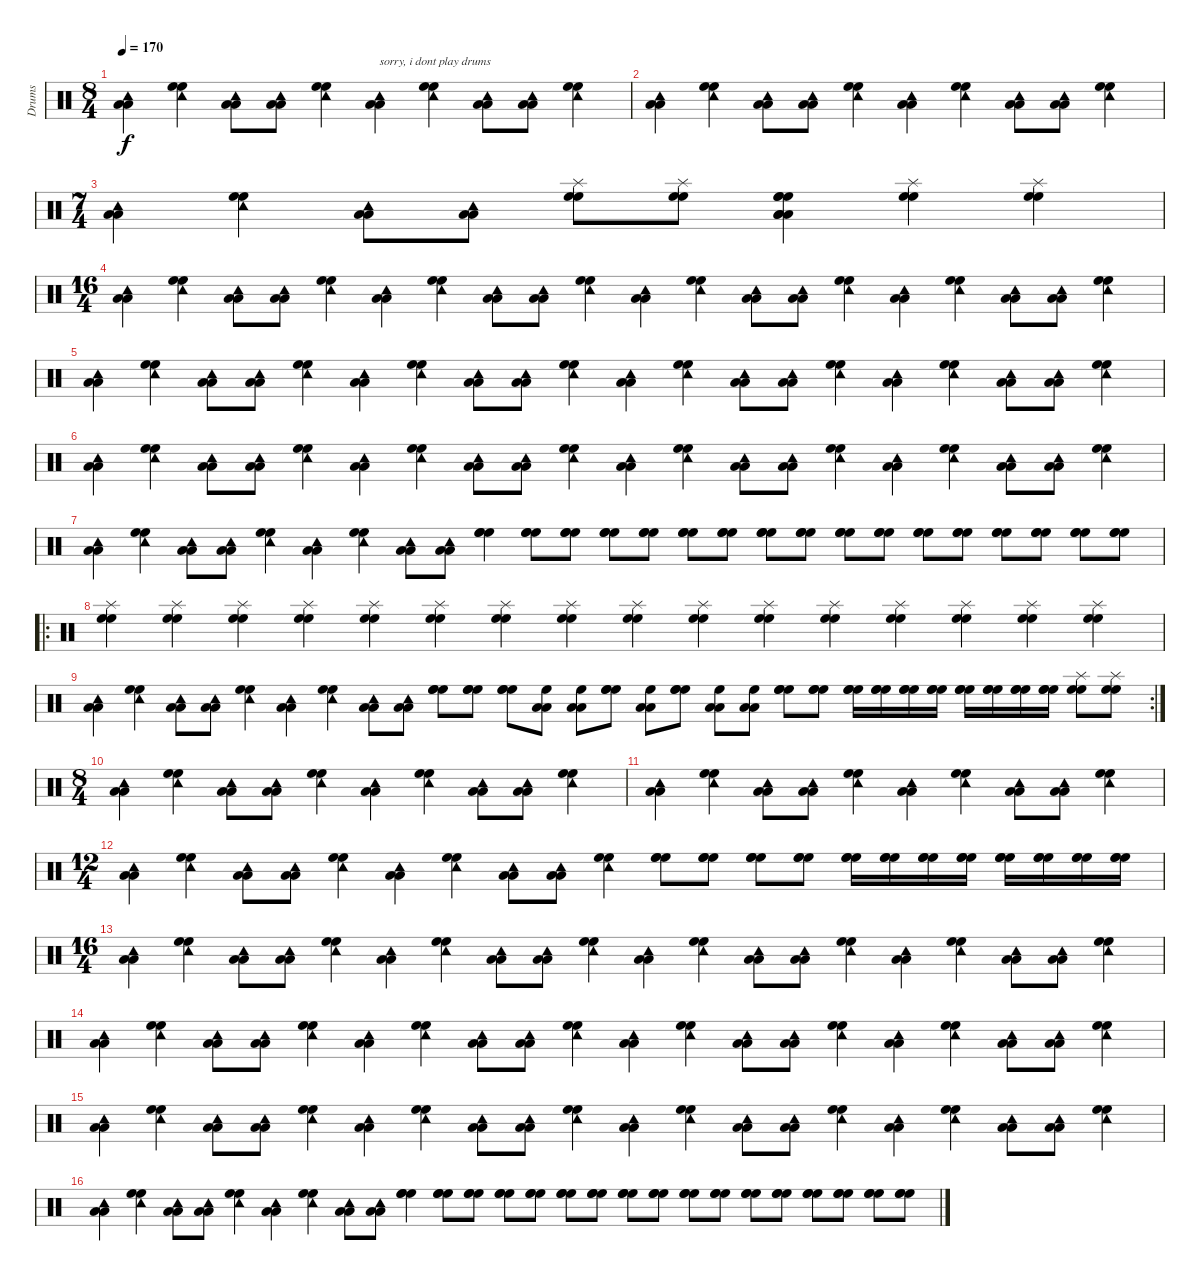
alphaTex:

\track ("Drums" "Drums") {instrument percussion}
\staff {score}
\articulation defaults
\ts (8 4)
\tempo 170
\clef neutral
\ks c
("Low Tom (hit)" "Low Tom (hit)" "Tambourine (hit)").4{dy f} ("High Floor Tom (hit)" "High Floor Tom (hit)" "Tambourine (hit)").4 ("Low Tom (hit)" "Low Tom (hit)" "Tambourine (hit)").8 ("Low Tom (hit)" "Low Tom (hit)" "Tambourine (hit)").8 ("High Floor Tom (hit)" "High Floor Tom (hit)" "Tambourine (hit)").4 ("Low Tom (hit)" "Low Tom (hit)" "Tambourine (hit)").4{txt "sorry, i dont play drums"} ("High Floor Tom (hit)" "High Floor Tom (hit)" "Tambourine (hit)").4 ("Low Tom (hit)" "Low Tom (hit)" "Tambourine (hit)").8 ("Low Tom (hit)" "Low Tom (hit)" "Tambourine (hit)").8 ("High Floor Tom (hit)" "High Floor Tom (hit)" "Tambourine (hit)").4 |
("Low Tom (hit)" "Low Tom (hit)" "Tambourine (hit)").4 ("High Floor Tom (hit)" "High Floor Tom (hit)" "Tambourine (hit)").4 ("Low Tom (hit)" "Low Tom (hit)" "Tambourine (hit)").8 ("Low Tom (hit)" "Low Tom (hit)" "Tambourine (hit)").8 ("High Floor Tom (hit)" "High Floor Tom (hit)" "Tambourine (hit)").4 ("Low Tom (hit)" "Low Tom (hit)" "Tambourine (hit)").4 ("High Floor Tom (hit)" "High Floor Tom (hit)" "Tambourine (hit)").4 ("Low Tom (hit)" "Low Tom (hit)" "Tambourine (hit)").8 ("Low Tom (hit)" "Low Tom (hit)" "Tambourine (hit)").8 ("High Floor Tom (hit)" "High Floor Tom (hit)" "Tambourine (hit)").4 |
\ts (7 4)
("Low Tom (hit)" "Low Tom (hit)" "Tambourine (hit)").4 ("High Floor Tom (hit)" "High Floor Tom (hit)" "Tambourine (hit)").4 ("Low Tom (hit)" "Low Tom (hit)" "Tambourine (hit)").8 ("Low Tom (hit)" "Low Tom (hit)" "Tambourine (hit)").8 ("High Floor Tom (hit)" "High Floor Tom (hit)" "Splash (hit)").8 ("High Floor Tom (hit)" "High Floor Tom (hit)" "Splash (hit)").8 ("Low Tom (hit)" "Low Tom (hit)" "Low Tom (hit)" "High Floor Tom (hit)" "High Floor Tom (hit)" "High Floor Tom (hit)").4 ("High Floor Tom (hit)" "High Floor Tom (hit)" "Splash (hit)").4 ("High Floor Tom (hit)" "High Floor Tom (hit)" "Splash (hit)").4 |
\ts (16 4)
("Low Tom (hit)" "Low Tom (hit)" "Tambourine (hit)").4 ("High Floor Tom (hit)" "High Floor Tom (hit)" "Tambourine (hit)").4 ("Low Tom (hit)" "Low Tom (hit)" "Tambourine (hit)").8 ("Low Tom (hit)" "Low Tom (hit)" "Tambourine (hit)").8 ("High Floor Tom (hit)" "High Floor Tom (hit)" "Tambourine (hit)").4 ("Low Tom (hit)" "Low Tom (hit)" "Tambourine (hit)").4 ("High Floor Tom (hit)" "High Floor Tom (hit)" "Tambourine (hit)").4 ("Low Tom (hit)" "Low Tom (hit)" "Tambourine (hit)").8 ("Low Tom (hit)" "Low Tom (hit)" "Tambourine (hit)").8 ("High Floor Tom (hit)" "High Floor Tom (hit)" "Tambourine (hit)").4 ("Low Tom (hit)" "Low Tom (hit)" "Tambourine (hit)").4 ("High Floor Tom (hit)" "High Floor Tom (hit)" "Tambourine (hit)").4 ("Low Tom (hit)" "Low Tom (hit)" "Tambourine (hit)").8 ("Low Tom (hit)" "Low Tom (hit)" "Tambourine (hit)").8 ("High Floor Tom (hit)" "High Floor Tom (hit)" "Tambourine (hit)").4 ("Low Tom (hit)" "Low Tom (hit)" "Tambourine (hit)").4 ("High Floor Tom (hit)" "High Floor Tom (hit)" "Tambourine (hit)").4 ("Low Tom (hit)" "Low Tom (hit)" "Tambourine (hit)").8 ("Low Tom (hit)" "Low Tom (hit)" "Tambourine (hit)").8 ("High Floor Tom (hit)" "High Floor Tom (hit)" "Tambourine (hit)").4 |
("Low Tom (hit)" "Low Tom (hit)" "Tambourine (hit)").4 ("High Floor Tom (hit)" "High Floor Tom (hit)" "Tambourine (hit)").4 ("Low Tom (hit)" "Low Tom (hit)" "Tambourine (hit)").8 ("Low Tom (hit)" "Low Tom (hit)" "Tambourine (hit)").8 ("High Floor Tom (hit)" "High Floor Tom (hit)" "Tambourine (hit)").4 ("Low Tom (hit)" "Low Tom (hit)" "Tambourine (hit)").4 ("High Floor Tom (hit)" "High Floor Tom (hit)" "Tambourine (hit)").4 ("Low Tom (hit)" "Low Tom (hit)" "Tambourine (hit)").8 ("Low Tom (hit)" "Low Tom (hit)" "Tambourine (hit)").8 ("High Floor Tom (hit)" "High Floor Tom (hit)" "Tambourine (hit)").4 ("Low Tom (hit)" "Low Tom (hit)" "Tambourine (hit)").4 ("High Floor Tom (hit)" "High Floor Tom (hit)" "Tambourine (hit)").4 ("Low Tom (hit)" "Low Tom (hit)" "Tambourine (hit)").8 ("Low Tom (hit)" "Low Tom (hit)" "Tambourine (hit)").8 ("High Floor Tom (hit)" "High Floor Tom (hit)" "Tambourine (hit)").4 ("Low Tom (hit)" "Low Tom (hit)" "Tambourine (hit)").4 ("High Floor Tom (hit)" "High Floor Tom (hit)" "Tambourine (hit)").4 ("Low Tom (hit)" "Low Tom (hit)" "Tambourine (hit)").8 ("Low Tom (hit)" "Low Tom (hit)" "Tambourine (hit)").8 ("High Floor Tom (hit)" "High Floor Tom (hit)" "Tambourine (hit)").4 |
("Low Tom (hit)" "Low Tom (hit)" "Tambourine (hit)").4 ("High Floor Tom (hit)" "High Floor Tom (hit)" "Tambourine (hit)").4 ("Low Tom (hit)" "Low Tom (hit)" "Tambourine (hit)").8 ("Low Tom (hit)" "Low Tom (hit)" "Tambourine (hit)").8 ("High Floor Tom (hit)" "High Floor Tom (hit)" "Tambourine (hit)").4 ("Low Tom (hit)" "Low Tom (hit)" "Tambourine (hit)").4 ("High Floor Tom (hit)" "High Floor Tom (hit)" "Tambourine (hit)").4 ("Low Tom (hit)" "Low Tom (hit)" "Tambourine (hit)").8 ("Low Tom (hit)" "Low Tom (hit)" "Tambourine (hit)").8 ("High Floor Tom (hit)" "High Floor Tom (hit)" "Tambourine (hit)").4 ("Low Tom (hit)" "Low Tom (hit)" "Tambourine (hit)").4 ("High Floor Tom (hit)" "High Floor Tom (hit)" "Tambourine (hit)").4 ("Low Tom (hit)" "Low Tom (hit)" "Tambourine (hit)").8 ("Low Tom (hit)" "Low Tom (hit)" "Tambourine (hit)").8 ("High Floor Tom (hit)" "High Floor Tom (hit)" "Tambourine (hit)").4 ("Low Tom (hit)" "Low Tom (hit)" "Tambourine (hit)").4 ("High Floor Tom (hit)" "High Floor Tom (hit)" "Tambourine (hit)").4 ("Low Tom (hit)" "Low Tom (hit)" "Tambourine (hit)").8 ("Low Tom (hit)" "Low Tom (hit)" "Tambourine (hit)").8 ("High Floor Tom (hit)" "High Floor Tom (hit)" "Tambourine (hit)").4 |
("Low Tom (hit)" "Low Tom (hit)" "Tambourine (hit)").4 ("High Floor Tom (hit)" "High Floor Tom (hit)" "Tambourine (hit)").4 ("Low Tom (hit)" "Low Tom (hit)" "Tambourine (hit)").8 ("Low Tom (hit)" "Low Tom (hit)" "Tambourine (hit)").8 ("High Floor Tom (hit)" "High Floor Tom (hit)" "Tambourine (hit)").4 ("Low Tom (hit)" "Low Tom (hit)" "Tambourine (hit)").4 ("High Floor Tom (hit)" "High Floor Tom (hit)" "Tambourine (hit)").4 ("Low Tom (hit)" "Low Tom (hit)" "Tambourine (hit)").8 ("Low Tom (hit)" "Low Tom (hit)" "Tambourine (hit)").8 ("High Floor Tom (hit)" "High Floor Tom (hit)" "High Floor Tom (hit)").4 ("High Floor Tom (hit)" "High Floor Tom (hit)" "High Floor Tom (hit)").8 ("High Floor Tom (hit)" "High Floor Tom (hit)" "High Floor Tom (hit)").8 ("High Floor Tom (hit)" "High Floor Tom (hit)" "High Floor Tom (hit)").8 ("High Floor Tom (hit)" "High Floor Tom (hit)" "High Floor Tom (hit)").8 ("High Floor Tom (hit)" "High Floor Tom (hit)" "High Floor Tom (hit)").8 ("High Floor Tom (hit)" "High Floor Tom (hit)" "High Floor Tom (hit)").8 ("High Floor Tom (hit)" "High Floor Tom (hit)" "High Floor Tom (hit)").8 ("High Floor Tom (hit)" "High Floor Tom (hit)" "High Floor Tom (hit)").8 ("High Floor Tom (hit)" "High Floor Tom (hit)" "High Floor Tom (hit)").8 ("High Floor Tom (hit)" "High Floor Tom (hit)" "High Floor Tom (hit)").8 ("High Floor Tom (hit)" "High Floor Tom (hit)" "High Floor Tom (hit)").8 ("High Floor Tom (hit)" "High Floor Tom (hit)" "High Floor Tom (hit)").8 ("High Floor Tom (hit)" "High Floor Tom (hit)" "High Floor Tom (hit)").8 ("High Floor Tom (hit)" "High Floor Tom (hit)" "High Floor Tom (hit)").8 ("High Floor Tom (hit)" "High Floor Tom (hit)" "High Floor Tom (hit)").8 ("High Floor Tom (hit)" "High Floor Tom (hit)" "High Floor Tom (hit)").8 |
\ro
("High Floor Tom (hit)" "High Floor Tom (hit)" "Splash (hit)").4 ("High Floor Tom (hit)" "High Floor Tom (hit)" "Splash (hit)").4 ("High Floor Tom (hit)" "High Floor Tom (hit)" "Splash (hit)").4 ("High Floor Tom (hit)" "High Floor Tom (hit)" "Splash (hit)").4 ("High Floor Tom (hit)" "High Floor Tom (hit)" "Splash (hit)").4 ("High Floor Tom (hit)" "High Floor Tom (hit)" "Splash (hit)").4 ("High Floor Tom (hit)" "High Floor Tom (hit)" "Splash (hit)").4 ("High Floor Tom (hit)" "High Floor Tom (hit)" "Splash (hit)").4 ("High Floor Tom (hit)" "High Floor Tom (hit)" "Splash (hit)").4 ("High Floor Tom (hit)" "High Floor Tom (hit)" "Splash (hit)").4 ("High Floor Tom (hit)" "High Floor Tom (hit)" "Splash (hit)").4 ("High Floor Tom (hit)" "High Floor Tom (hit)" "Splash (hit)").4 ("High Floor Tom (hit)" "High Floor Tom (hit)" "Splash (hit)").4 ("High Floor Tom (hit)" "High Floor Tom (hit)" "Splash (hit)").4 ("High Floor Tom (hit)" "High Floor Tom (hit)" "Splash (hit)").4 ("High Floor Tom (hit)" "High Floor Tom (hit)" "Splash (hit)").4 |
\rc 2
("Low Tom (hit)" "Low Tom (hit)" "Tambourine (hit)").4 ("High Floor Tom (hit)" "High Floor Tom (hit)" "Tambourine (hit)").4 ("Low Tom (hit)" "Low Tom (hit)" "Tambourine (hit)").8 ("Low Tom (hit)" "Low Tom (hit)" "Tambourine (hit)").8 ("High Floor Tom (hit)" "High Floor Tom (hit)" "Tambourine (hit)").4 ("Low Tom (hit)" "Low Tom (hit)" "Tambourine (hit)").4 ("High Floor Tom (hit)" "High Floor Tom (hit)" "Tambourine (hit)").4 ("Low Tom (hit)" "Low Tom (hit)" "Tambourine (hit)").8 ("Low Tom (hit)" "Low Tom (hit)" "Tambourine (hit)").8 ("High Floor Tom (hit)" "High Floor Tom (hit)" "High Floor Tom (hit)").8 ("High Floor Tom (hit)" "High Floor Tom (hit)" "High Floor Tom (hit)").8 ("High Floor Tom (hit)" "High Floor Tom (hit)" "High Floor Tom (hit)").8 ("Low Tom (hit)" "Low Tom (hit)" "High Floor Tom (hit)").8 ("Low Tom (hit)" "Low Tom (hit)" "High Floor Tom (hit)").8 ("High Floor Tom (hit)" "High Floor Tom (hit)" "High Floor Tom (hit)").8 ("Low Tom (hit)" "Low Tom (hit)" "High Floor Tom (hit)").8 ("High Floor Tom (hit)" "High Floor Tom (hit)" "High Floor Tom (hit)").8 ("Low Tom (hit)" "Low Tom (hit)" "High Floor Tom (hit)").8 ("Low Tom (hit)" "Low Tom (hit)" "High Floor Tom (hit)").8 ("High Floor Tom (hit)" "High Floor Tom (hit)" "High Floor Tom (hit)").8 ("High Floor Tom (hit)" "High Floor Tom (hit)" "High Floor Tom (hit)").8 ("High Floor Tom (hit)" "High Floor Tom (hit)" "High Floor Tom (hit)").16 ("High Floor Tom (hit)" "High Floor Tom (hit)" "High Floor Tom (hit)").16 ("High Floor Tom (hit)" "High Floor Tom (hit)" "High Floor Tom (hit)").16 ("High Floor Tom (hit)" "High Floor Tom (hit)" "High Floor Tom (hit)").16 ("High Floor Tom (hit)" "High Floor Tom (hit)" "High Floor Tom (hit)").16 ("High Floor Tom (hit)" "High Floor Tom (hit)" "High Floor Tom (hit)").16 ("High Floor Tom (hit)" "High Floor Tom (hit)" "High Floor Tom (hit)").16 ("High Floor Tom (hit)" "High Floor Tom (hit)" "High Floor Tom (hit)").16 ("High Floor Tom (hit)" "High Floor Tom (hit)" "Splash (hit)").8 ("High Floor Tom (hit)" "High Floor Tom (hit)" "Splash (hit)").8 |
\ts (8 4)
("Low Tom (hit)" "Low Tom (hit)" "Tambourine (hit)").4 ("High Floor Tom (hit)" "High Floor Tom (hit)" "Tambourine (hit)").4 ("Low Tom (hit)" "Low Tom (hit)" "Tambourine (hit)").8 ("Low Tom (hit)" "Low Tom (hit)" "Tambourine (hit)").8 ("High Floor Tom (hit)" "High Floor Tom (hit)" "Tambourine (hit)").4 ("Low Tom (hit)" "Low Tom (hit)" "Tambourine (hit)").4 ("High Floor Tom (hit)" "High Floor Tom (hit)" "Tambourine (hit)").4 ("Low Tom (hit)" "Low Tom (hit)" "Tambourine (hit)").8 ("Low Tom (hit)" "Low Tom (hit)" "Tambourine (hit)").8 ("High Floor Tom (hit)" "High Floor Tom (hit)" "Tambourine (hit)").4 |
("Low Tom (hit)" "Low Tom (hit)" "Tambourine (hit)").4 ("High Floor Tom (hit)" "High Floor Tom (hit)" "Tambourine (hit)").4 ("Low Tom (hit)" "Low Tom (hit)" "Tambourine (hit)").8 ("Low Tom (hit)" "Low Tom (hit)" "Tambourine (hit)").8 ("High Floor Tom (hit)" "High Floor Tom (hit)" "Tambourine (hit)").4 ("Low Tom (hit)" "Low Tom (hit)" "Tambourine (hit)").4 ("High Floor Tom (hit)" "High Floor Tom (hit)" "Tambourine (hit)").4 ("Low Tom (hit)" "Low Tom (hit)" "Tambourine (hit)").8 ("Low Tom (hit)" "Low Tom (hit)" "Tambourine (hit)").8 ("High Floor Tom (hit)" "High Floor Tom (hit)" "Tambourine (hit)").4 |
\ts (12 4)
("Low Tom (hit)" "Low Tom (hit)" "Tambourine (hit)").4 ("High Floor Tom (hit)" "High Floor Tom (hit)" "Tambourine (hit)").4 ("Low Tom (hit)" "Low Tom (hit)" "Tambourine (hit)").8 ("Low Tom (hit)" "Low Tom (hit)" "Tambourine (hit)").8 ("High Floor Tom (hit)" "High Floor Tom (hit)" "Tambourine (hit)").4 ("Low Tom (hit)" "Low Tom (hit)" "Tambourine (hit)").4 ("High Floor Tom (hit)" "High Floor Tom (hit)" "Tambourine (hit)").4 ("Low Tom (hit)" "Low Tom (hit)" "Tambourine (hit)").8 ("Low Tom (hit)" "Low Tom (hit)" "Tambourine (hit)").8 ("High Floor Tom (hit)" "High Floor Tom (hit)" "Tambourine (hit)").4 ("High Floor Tom (hit)" "High Floor Tom (hit)" "High Floor Tom (hit)").8 ("High Floor Tom (hit)" "High Floor Tom (hit)" "High Floor Tom (hit)").8 ("High Floor Tom (hit)" "High Floor Tom (hit)" "High Floor Tom (hit)").8 ("High Floor Tom (hit)" "High Floor Tom (hit)" "High Floor Tom (hit)").8 ("High Floor Tom (hit)" "High Floor Tom (hit)" "High Floor Tom (hit)").16 ("High Floor Tom (hit)" "High Floor Tom (hit)" "High Floor Tom (hit)").16 ("High Floor Tom (hit)" "High Floor Tom (hit)" "High Floor Tom (hit)").16 ("High Floor Tom (hit)" "High Floor Tom (hit)" "High Floor Tom (hit)").16 ("High Floor Tom (hit)" "High Floor Tom (hit)" "High Floor Tom (hit)").16 ("High Floor Tom (hit)" "High Floor Tom (hit)" "High Floor Tom (hit)").16 ("High Floor Tom (hit)" "High Floor Tom (hit)" "High Floor Tom (hit)").16 ("High Floor Tom (hit)" "High Floor Tom (hit)" "High Floor Tom (hit)").16 |
\ts (16 4)
("Low Tom (hit)" "Low Tom (hit)" "Tambourine (hit)").4 ("High Floor Tom (hit)" "High Floor Tom (hit)" "Tambourine (hit)").4 ("Low Tom (hit)" "Low Tom (hit)" "Tambourine (hit)").8 ("Low Tom (hit)" "Low Tom (hit)" "Tambourine (hit)").8 ("High Floor Tom (hit)" "High Floor Tom (hit)" "Tambourine (hit)").4 ("Low Tom (hit)" "Low Tom (hit)" "Tambourine (hit)").4 ("High Floor Tom (hit)" "High Floor Tom (hit)" "Tambourine (hit)").4 ("Low Tom (hit)" "Low Tom (hit)" "Tambourine (hit)").8 ("Low Tom (hit)" "Low Tom (hit)" "Tambourine (hit)").8 ("High Floor Tom (hit)" "High Floor Tom (hit)" "Tambourine (hit)").4 ("Low Tom (hit)" "Low Tom (hit)" "Tambourine (hit)").4 ("High Floor Tom (hit)" "High Floor Tom (hit)" "Tambourine (hit)").4 ("Low Tom (hit)" "Low Tom (hit)" "Tambourine (hit)").8 ("Low Tom (hit)" "Low Tom (hit)" "Tambourine (hit)").8 ("High Floor Tom (hit)" "High Floor Tom (hit)" "Tambourine (hit)").4 ("Low Tom (hit)" "Low Tom (hit)" "Tambourine (hit)").4 ("High Floor Tom (hit)" "High Floor Tom (hit)" "Tambourine (hit)").4 ("Low Tom (hit)" "Low Tom (hit)" "Tambourine (hit)").8 ("Low Tom (hit)" "Low Tom (hit)" "Tambourine (hit)").8 ("High Floor Tom (hit)" "High Floor Tom (hit)" "Tambourine (hit)").4 |
("Low Tom (hit)" "Low Tom (hit)" "Tambourine (hit)").4 ("High Floor Tom (hit)" "High Floor Tom (hit)" "Tambourine (hit)").4 ("Low Tom (hit)" "Low Tom (hit)" "Tambourine (hit)").8 ("Low Tom (hit)" "Low Tom (hit)" "Tambourine (hit)").8 ("High Floor Tom (hit)" "High Floor Tom (hit)" "Tambourine (hit)").4 ("Low Tom (hit)" "Low Tom (hit)" "Tambourine (hit)").4 ("High Floor Tom (hit)" "High Floor Tom (hit)" "Tambourine (hit)").4 ("Low Tom (hit)" "Low Tom (hit)" "Tambourine (hit)").8 ("Low Tom (hit)" "Low Tom (hit)" "Tambourine (hit)").8 ("High Floor Tom (hit)" "High Floor Tom (hit)" "Tambourine (hit)").4 ("Low Tom (hit)" "Low Tom (hit)" "Tambourine (hit)").4 ("High Floor Tom (hit)" "High Floor Tom (hit)" "Tambourine (hit)").4 ("Low Tom (hit)" "Low Tom (hit)" "Tambourine (hit)").8 ("Low Tom (hit)" "Low Tom (hit)" "Tambourine (hit)").8 ("High Floor Tom (hit)" "High Floor Tom (hit)" "Tambourine (hit)").4 ("Low Tom (hit)" "Low Tom (hit)" "Tambourine (hit)").4 ("High Floor Tom (hit)" "High Floor Tom (hit)" "Tambourine (hit)").4 ("Low Tom (hit)" "Low Tom (hit)" "Tambourine (hit)").8 ("Low Tom (hit)" "Low Tom (hit)" "Tambourine (hit)").8 ("High Floor Tom (hit)" "High Floor Tom (hit)" "Tambourine (hit)").4 |
("Low Tom (hit)" "Low Tom (hit)" "Tambourine (hit)").4 ("High Floor Tom (hit)" "High Floor Tom (hit)" "Tambourine (hit)").4 ("Low Tom (hit)" "Low Tom (hit)" "Tambourine (hit)").8 ("Low Tom (hit)" "Low Tom (hit)" "Tambourine (hit)").8 ("High Floor Tom (hit)" "High Floor Tom (hit)" "Tambourine (hit)").4 ("Low Tom (hit)" "Low Tom (hit)" "Tambourine (hit)").4 ("High Floor Tom (hit)" "High Floor Tom (hit)" "Tambourine (hit)").4 ("Low Tom (hit)" "Low Tom (hit)" "Tambourine (hit)").8 ("Low Tom (hit)" "Low Tom (hit)" "Tambourine (hit)").8 ("High Floor Tom (hit)" "High Floor Tom (hit)" "Tambourine (hit)").4 ("Low Tom (hit)" "Low Tom (hit)" "Tambourine (hit)").4 ("High Floor Tom (hit)" "High Floor Tom (hit)" "Tambourine (hit)").4 ("Low Tom (hit)" "Low Tom (hit)" "Tambourine (hit)").8 ("Low Tom (hit)" "Low Tom (hit)" "Tambourine (hit)").8 ("High Floor Tom (hit)" "High Floor Tom (hit)" "Tambourine (hit)").4 ("Low Tom (hit)" "Low Tom (hit)" "Tambourine (hit)").4 ("High Floor Tom (hit)" "High Floor Tom (hit)" "Tambourine (hit)").4 ("Low Tom (hit)" "Low Tom (hit)" "Tambourine (hit)").8 ("Low Tom (hit)" "Low Tom (hit)" "Tambourine (hit)").8 ("High Floor Tom (hit)" "High Floor Tom (hit)" "Tambourine (hit)").4 |
("Low Tom (hit)" "Low Tom (hit)" "Tambourine (hit)").4 ("High Floor Tom (hit)" "High Floor Tom (hit)" "Tambourine (hit)").4 ("Low Tom (hit)" "Low Tom (hit)" "Tambourine (hit)").8 ("Low Tom (hit)" "Low Tom (hit)" "Tambourine (hit)").8 ("High Floor Tom (hit)" "High Floor Tom (hit)" "Tambourine (hit)").4 ("Low Tom (hit)" "Low Tom (hit)" "Tambourine (hit)").4 ("High Floor Tom (hit)" "High Floor Tom (hit)" "Tambourine (hit)").4 ("Low Tom (hit)" "Low Tom (hit)" "Tambourine (hit)").8 ("Low Tom (hit)" "Low Tom (hit)" "Tambourine (hit)").8 ("High Floor Tom (hit)" "High Floor Tom (hit)" "High Floor Tom (hit)").4 ("High Floor Tom (hit)" "High Floor Tom (hit)" "High Floor Tom (hit)").8 ("High Floor Tom (hit)" "High Floor Tom (hit)" "High Floor Tom (hit)").8 ("High Floor Tom (hit)" "High Floor Tom (hit)" "High Floor Tom (hit)").8 ("High Floor Tom (hit)" "High Floor Tom (hit)" "High Floor Tom (hit)").8 ("High Floor Tom (hit)" "High Floor Tom (hit)" "High Floor Tom (hit)").8 ("High Floor Tom (hit)" "High Floor Tom (hit)" "High Floor Tom (hit)").8 ("High Floor Tom (hit)" "High Floor Tom (hit)" "High Floor Tom (hit)").8 ("High Floor Tom (hit)" "High Floor Tom (hit)" "High Floor Tom (hit)").8 ("High Floor Tom (hit)" "High Floor Tom (hit)" "High Floor Tom (hit)").8 ("High Floor Tom (hit)" "High Floor Tom (hit)" "High Floor Tom (hit)").8 ("High Floor Tom (hit)" "High Floor Tom (hit)" "High Floor Tom (hit)").8 ("High Floor Tom (hit)" "High Floor Tom (hit)" "High Floor Tom (hit)").8 ("High Floor Tom (hit)" "High Floor Tom (hit)" "High Floor Tom (hit)").8 ("High Floor Tom (hit)" "High Floor Tom (hit)" "High Floor Tom (hit)").8 ("High Floor Tom (hit)" "High Floor Tom (hit)" "High Floor Tom (hit)").8 ("High Floor Tom (hit)" "High Floor Tom (hit)" "High Floor Tom (hit)").8
